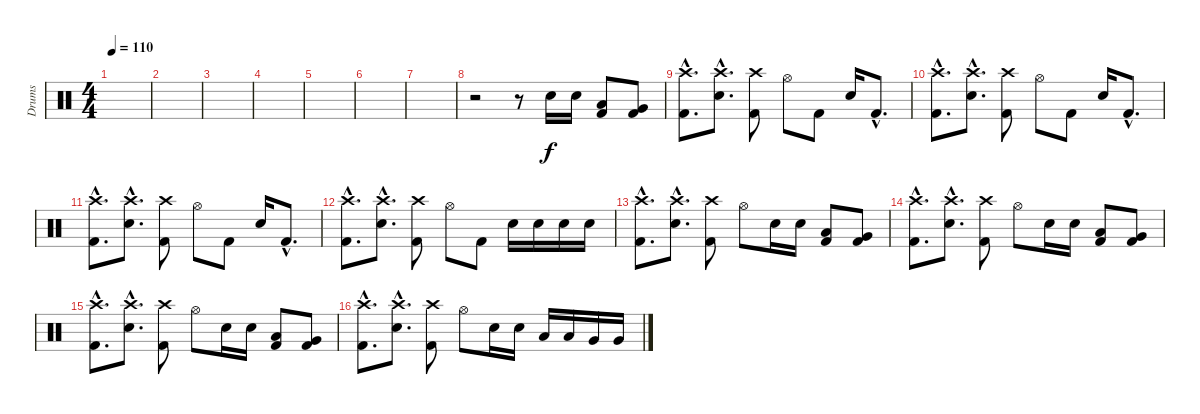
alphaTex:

\track ("Drums" "Drums") {instrument percussion}
\staff {score}
\articulation defaults
\ts (4 4)
\tempo 110
\clef neutral
\ks c
|
|
|
|
|
|
|
r.2 r.8 "Snare (hit) 2".16 "Snare (hit) 2".16 ("Low Tom (hit)" "Kick (hit) 2").8 ("Very Low Tom (hit)" "Kick (hit) 2").8 |
("Crash high (hit)"{hac} "Kick (hit) 2"{hac}).8{d} ("Crash high (hit)"{hac} "Snare (hit) 2"{hac}).8{d} ("Crash high (hit)" "Kick (hit) 2").8 "Hi-Hat (open)".8 "Kick (hit) 2".8 "Snare (hit) 2".16 "Kick (hit) 2"{hac}.8{d} |
("Crash high (hit)"{hac} "Kick (hit) 2"{hac}).8{d} ("Crash high (hit)"{hac} "Snare (hit) 2"{hac}).8{d} ("Crash high (hit)" "Kick (hit) 2").8 "Hi-Hat (open)".8 "Kick (hit) 2".8 "Snare (hit) 2".16 "Kick (hit) 2"{hac}.8{d} |
("Crash high (hit)"{hac} "Kick (hit) 2"{hac}).8{d} ("Crash high (hit)"{hac} "Snare (hit) 2"{hac}).8{d} ("Crash high (hit)" "Kick (hit) 2").8 "Hi-Hat (open)".8 "Kick (hit) 2".8 "Snare (hit) 2".16 "Kick (hit) 2"{hac}.8{d} |
("Crash high (hit)"{hac} "Kick (hit) 2"{hac}).8{d} ("Crash high (hit)"{hac} "Snare (hit) 2"{hac}).8{d} ("Crash high (hit)" "Kick (hit) 2").8 "Hi-Hat (open)".8 "Kick (hit) 2".8 "Snare (hit) 2".16 "Snare (hit) 2".16 "Snare (hit) 2".16 "Snare (hit) 2".16 |
("Crash high (hit)"{hac} "Kick (hit) 2"{hac}).8{d} ("Crash high (hit)"{hac} "Snare (hit) 2"{hac}).8{d} ("Crash high (hit)" "Kick (hit) 2").8 "Hi-Hat (open)".8 "Snare (hit) 2".16 "Snare (hit) 2".16 ("Low Tom (hit)" "Kick (hit) 2").8 ("Very Low Tom (hit)" "Kick (hit) 2").8 |
("Crash high (hit)"{hac} "Kick (hit) 2"{hac}).8{d} ("Crash high (hit)"{hac} "Snare (hit) 2"{hac}).8{d} ("Crash high (hit)" "Kick (hit) 2").8 "Hi-Hat (open)".8 "Snare (hit) 2".16 "Snare (hit) 2".16 ("Low Tom (hit)" "Kick (hit) 2").8 ("Very Low Tom (hit)" "Kick (hit) 2").8 |
("Crash high (hit)"{hac} "Kick (hit) 2"{hac}).8{d} ("Crash high (hit)"{hac} "Snare (hit) 2"{hac}).8{d} ("Crash high (hit)" "Kick (hit) 2").8 "Hi-Hat (open)".8 "Snare (hit) 2".16 "Snare (hit) 2".16 ("Low Tom (hit)" "Kick (hit) 2").8 ("Very Low Tom (hit)" "Kick (hit) 2").8 |
("Crash high (hit)"{hac} "Kick (hit) 2"{hac}).8{d} ("Crash high (hit)"{hac} "Snare (hit) 2"{hac}).8{d} ("Crash high (hit)" "Kick (hit) 2").8 "Hi-Hat (open)".8 "Snare (hit) 2".16 "Snare (hit) 2".16 "Low Tom (hit)".16 "Low Tom (hit)".16 "Very Low Tom (hit)".16 "Very Low Tom (hit)".16
